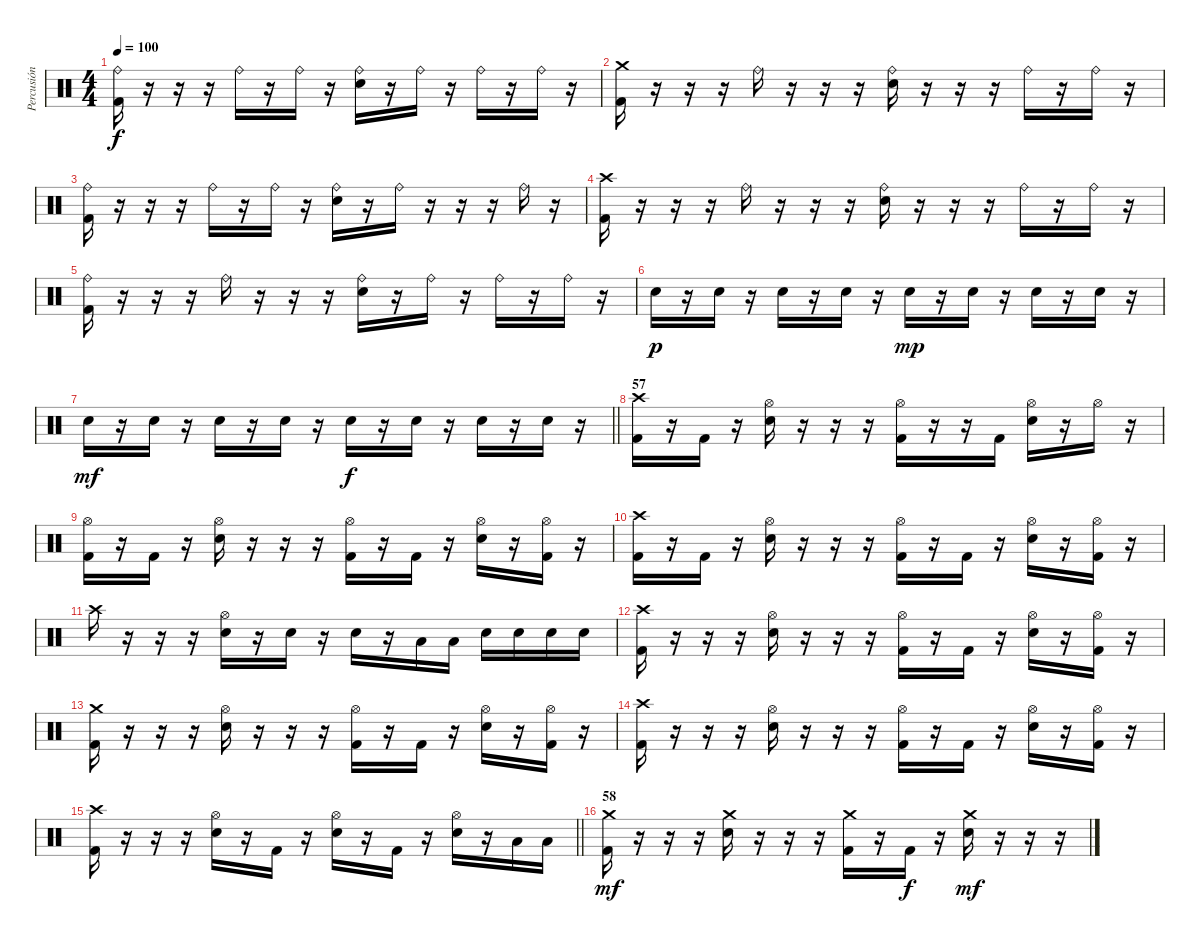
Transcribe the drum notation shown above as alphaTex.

\track ("Percusión" "Percusión") {instrument percussion}
\staff {score}
\articulation defaults
\ts (4 4)
\tempo 100
\clef neutral
\ks c
("Ride (bell)" "Kick (hit) 2").16{dy f} r.16 r.16 r.16 "Ride (bell)".16 r.16 "Ride (bell)".16 r.16 ("Ride (bell)" "Electric Snare (hit)").16 r.16 "Ride (bell)".16 r.16 "Ride (bell)".16 r.16 "Ride (bell)".16 r.16 |
("Crash medium (hit)" "Kick (hit) 2").16 r.16 r.16 r.16 "Ride (bell)".16 r.16 r.16 r.16 ("Ride (bell)" "Electric Snare (hit)").16 r.16 r.16 r.16 "Ride (bell)".16 r.16 "Ride (bell)".16 r.16 |
("Ride (bell)" "Kick (hit) 2").16 r.16 r.16 r.16 "Ride (bell)".16 r.16 "Ride (bell)".16 r.16 ("Ride (bell)" "Electric Snare (hit)").16 r.16 "Ride (bell)".16 r.16 r.16 r.16 "Ride (bell)".16 r.16 |
("Crash high (hit)" "Kick (hit) 2").16 r.16 r.16 r.16 "Ride (bell)".16 r.16 r.16 r.16 ("Ride (bell)" "Electric Snare (hit)").16 r.16 r.16 r.16 "Ride (bell)".16 r.16 "Ride (bell)".16 r.16 |
("Ride (bell)" "Kick (hit) 2").16 r.16 r.16 r.16 "Ride (bell)".16 r.16 r.16 r.16 ("Ride (bell)" "Electric Snare (hit)").16 r.16 "Ride (bell)".16 r.16 "Ride (bell)".16 r.16 "Ride (bell)".16 r.16 |
"Electric Snare (hit)".16{dy p} r.16 "Electric Snare (hit)".16 r.16 "Electric Snare (hit)".16 r.16 "Electric Snare (hit)".16 r.16 "Electric Snare (hit)".16{dy mp} r.16 "Electric Snare (hit)".16 r.16 "Electric Snare (hit)".16 r.16 "Electric Snare (hit)".16 r.16 |
\barLineRight lightlight "Electric Snare (hit)".16{dy mf}
r.16 "Electric Snare (hit)".16 r.16 "Electric Snare (hit)".16 r.16 "Electric Snare (hit)".16 r.16 "Electric Snare (hit)".16{dy f} r.16 "Electric Snare (hit)".16 r.16 "Electric Snare (hit)".16 r.16 "Electric Snare (hit)".16 r.16 |
\section ("" "57")
("Crash high (hit)" "Kick (hit) 2").16 r.16 "Kick (hit) 2".16 r.16 ("Hi-Hat (open)" "Electric Snare (hit)").16 r.16 r.16 r.16 ("Hi-Hat (open)" "Kick (hit) 2").16 r.16 r.16 "Kick (hit) 2".16 ("Hi-Hat (open)" "Electric Snare (hit)").16 r.16 "Hi-Hat (open)".16 r.16 |
("Hi-Hat (open)" "Kick (hit) 2").16 r.16 "Kick (hit) 2".16 r.16 ("Hi-Hat (open)" "Electric Snare (hit)").16 r.16 r.16 r.16 ("Hi-Hat (open)" "Kick (hit) 2").16 r.16 "Kick (hit) 2".16 r.16 ("Hi-Hat (open)" "Electric Snare (hit)").16 r.16 ("Hi-Hat (open)" "Kick (hit) 2").16 r.16 |
("Crash high (hit)" "Kick (hit) 2").16 r.16 "Kick (hit) 2".16 r.16 ("Hi-Hat (open)" "Electric Snare (hit)").16 r.16 r.16 r.16 ("Hi-Hat (open)" "Kick (hit) 2").16 r.16 "Kick (hit) 2".16 r.16 ("Hi-Hat (open)" "Electric Snare (hit)").16 r.16 ("Hi-Hat (open)" "Kick (hit) 2").16 r.16 |
"Crash high (hit)".16 r.16 r.16 r.16 ("Hi-Hat (open)" "Electric Snare (hit)").16 r.16 "Electric Snare (hit)".16 r.16 "Electric Snare (hit)".16 r.16 "Low Tom (hit)".16 "Low Tom (hit)".16 "Electric Snare (hit)".16 "Electric Snare (hit)".16 "Electric Snare (hit)".16 "Electric Snare (hit)".16 |
("Crash high (hit)" "Kick (hit) 2").16 r.16 r.16 r.16 ("Hi-Hat (open)" "Electric Snare (hit)").16 r.16 r.16 r.16 ("Hi-Hat (open)" "Kick (hit) 2").16 r.16 "Kick (hit) 2".16 r.16 ("Hi-Hat (open)" "Electric Snare (hit)").16 r.16 ("Hi-Hat (open)" "Kick (hit) 2").16 r.16 |
("Crash medium (hit)" "Kick (hit) 2").16 r.16 r.16 r.16 ("Hi-Hat (open)" "Electric Snare (hit)").16 r.16 r.16 r.16 ("Hi-Hat (open)" "Kick (hit) 2").16 r.16 "Kick (hit) 2".16 r.16 ("Hi-Hat (open)" "Electric Snare (hit)").16 r.16 ("Hi-Hat (open)" "Kick (hit) 2").16 r.16 |
("Crash high (hit)" "Kick (hit) 2").16 r.16 r.16 r.16 ("Hi-Hat (open)" "Electric Snare (hit)").16 r.16 r.16 r.16 ("Hi-Hat (open)" "Kick (hit) 2").16 r.16 "Kick (hit) 2".16 r.16 ("Hi-Hat (open)" "Electric Snare (hit)").16 r.16 ("Hi-Hat (open)" "Kick (hit) 2").16 r.16 |
\barLineRight lightlight
("Crash high (hit)" "Kick (hit) 2").16 r.16 r.16 r.16 ("Hi-Hat (open)" "Electric Snare (hit)").16 r.16 "Kick (hit) 2".16 r.16 ("Hi-Hat (open)" "Electric Snare (hit)").16 r.16 "Kick (hit) 2".16 r.16 ("Hi-Hat (open)" "Electric Snare (hit)").16 r.16 "Low Tom (hit)".16 "Low Tom (hit)".16 |
\section ("" "58")
("Crash medium (hit)" "Kick (hit) 2").16{dy mf} r.16 r.16 r.16 ("Crash medium (hit)" "Electric Snare (hit)").16 r.16 r.16 r.16 ("Crash medium (hit)" "Kick (hit) 2").16 r.16 "Kick (hit) 2".16{dy f} r.16 ("Crash medium (hit)" "Electric Snare (hit)").16{dy mf} r.16 r.16 r.16
